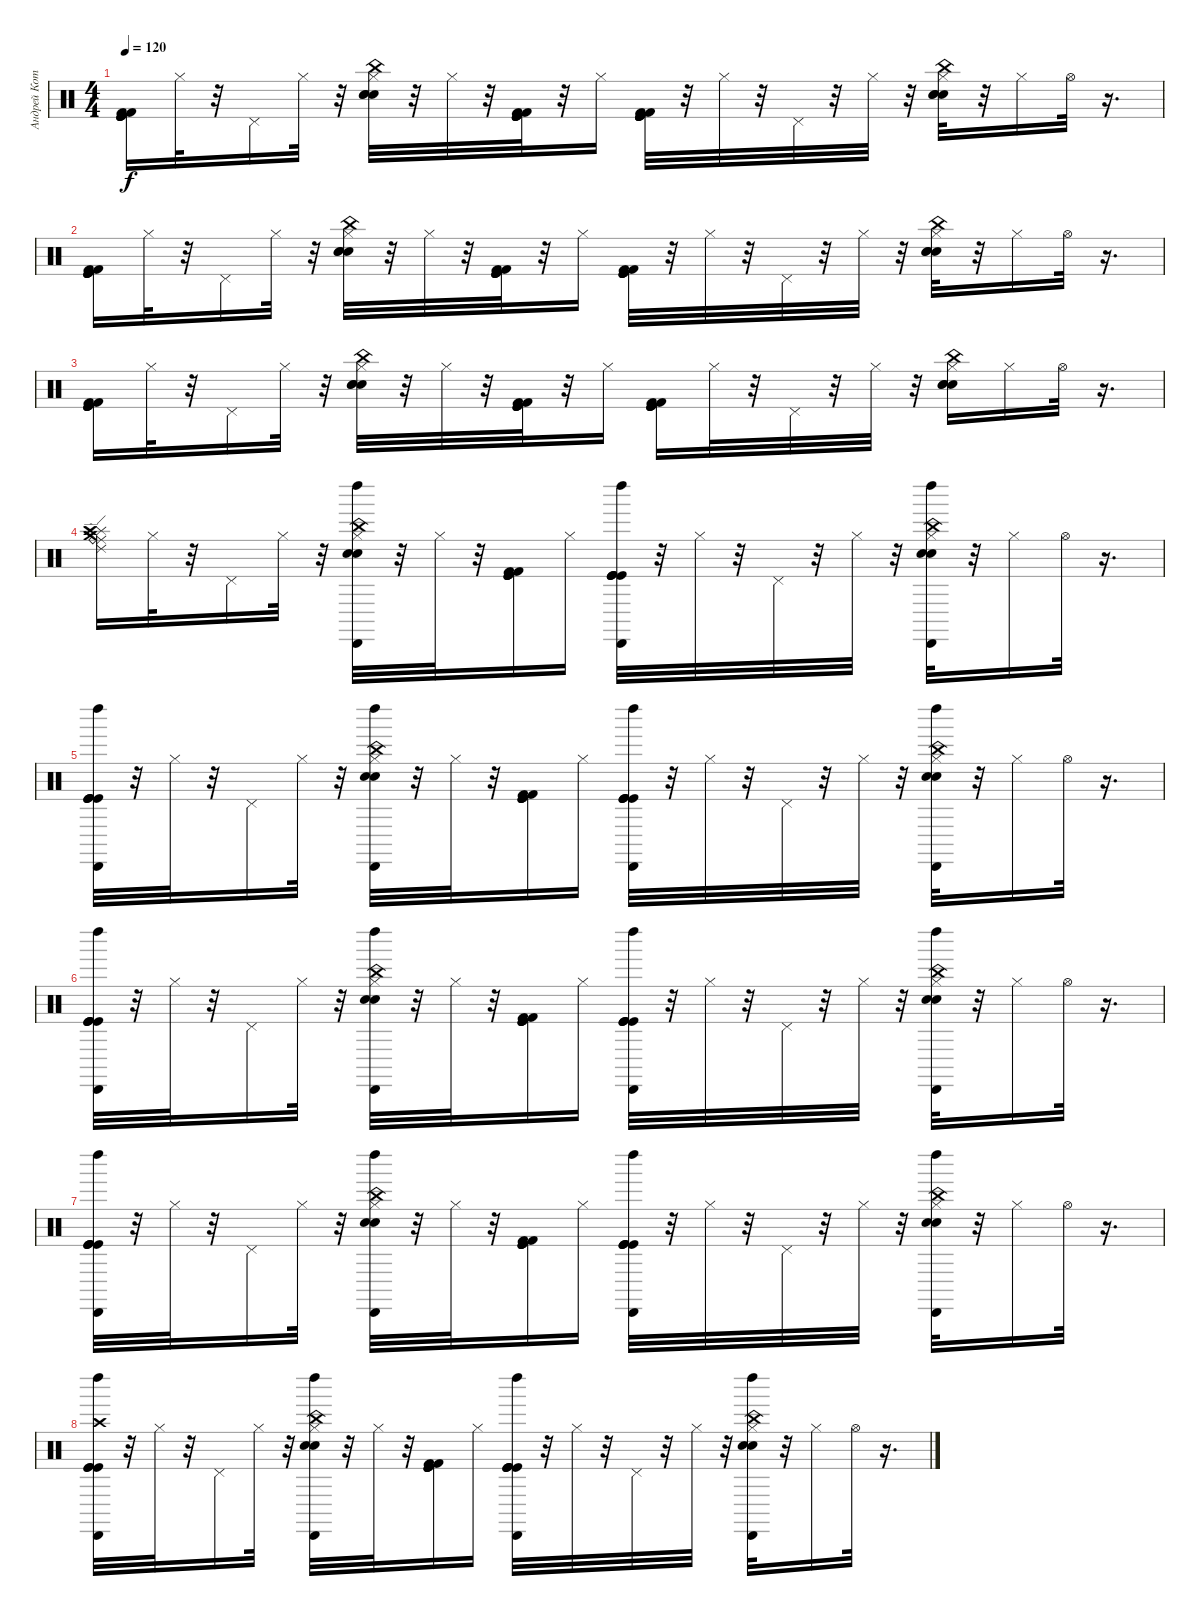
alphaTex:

\track ("Андрей Котов " "Андрей Кот") {instrument percussion}
\staff {score}
\articulation defaults
\ts (4 4)
\tempo 120
\clef neutral
\ks c
("Kick (hit)" "Kick (hit)" "Kick (hit)" "Kick (hit)" "Kick (hit) 2" "Kick (hit) 2").16{dy f} "Hi-Hat (closed)".32 r.32 "Pedal Hi-Hat (hit)".16 "Hi-Hat (closed)".32 r.32 ("China (hit)" "Electric Snare (hit)" "Hand Clap (hit)" "Hi-Hat (closed)" "Snare (hit) 2").32 r.32 "Hi-Hat (closed)".32 r.32 ("Kick (hit)" "Kick (hit)" "Kick (hit)" "Kick (hit)" "Kick (hit) 2" "Kick (hit) 2").32 r.32 "Hi-Hat (closed)".16 ("Kick (hit)" "Kick (hit)" "Kick (hit)" "Kick (hit)" "Kick (hit) 2" "Kick (hit) 2").32 r.32 "Hi-Hat (closed)".32 r.32 "Pedal Hi-Hat (hit)".32 r.32 "Hi-Hat (closed)".32 r.32 ("China (hit)" "Electric Snare (hit)" "Hand Clap (hit)" "Hi-Hat (closed)" "Snare (hit) 2").32 r.32 "Hi-Hat (closed)".16 "Hi-Hat (open)".32 r.16{d} |
("Kick (hit)" "Kick (hit)" "Kick (hit)" "Kick (hit)" "Kick (hit) 2" "Kick (hit) 2").16 "Hi-Hat (closed)".32 r.32 "Pedal Hi-Hat (hit)".16 "Hi-Hat (closed)".32 r.32 ("China (hit)" "Electric Snare (hit)" "Hand Clap (hit)" "Hi-Hat (closed)" "Snare (hit) 2").32 r.32 "Hi-Hat (closed)".32 r.32 ("Kick (hit)" "Kick (hit)" "Kick (hit)" "Kick (hit)" "Kick (hit) 2" "Kick (hit) 2").32 r.32 "Hi-Hat (closed)".16 ("Kick (hit)" "Kick (hit)" "Kick (hit)" "Kick (hit)" "Kick (hit) 2" "Kick (hit) 2").32 r.32 "Hi-Hat (closed)".32 r.32 "Pedal Hi-Hat (hit)".32 r.32 "Hi-Hat (closed)".32 r.32 ("China (hit)" "Electric Snare (hit)" "Hand Clap (hit)" "Hi-Hat (closed)" "Snare (hit) 2").32 r.32 "Hi-Hat (closed)".16 "Hi-Hat (open)".32 r.16{d} |
("Kick (hit)" "Kick (hit)" "Kick (hit)" "Kick (hit)" "Kick (hit) 2" "Kick (hit) 2").16 "Hi-Hat (closed)".32 r.32 "Pedal Hi-Hat (hit)".16 "Hi-Hat (closed)".32 r.32 ("China (hit)" "Electric Snare (hit)" "Hand Clap (hit)" "Hi-Hat (closed)" "Snare (hit) 2").32 r.32 "Hi-Hat (closed)".32 r.32 ("Kick (hit)" "Kick (hit)" "Kick (hit)" "Kick (hit)" "Kick (hit) 2" "Kick (hit) 2").32 r.32 "Hi-Hat (closed)".16 ("Kick (hit)" "Kick (hit)" "Kick (hit)" "Kick (hit)" "Kick (hit) 2" "Kick (hit) 2").16 "Hi-Hat (closed)".32 r.32 "Pedal Hi-Hat (hit)".32 r.32 "Hi-Hat (closed)".32 r.32 ("China (hit)" "Electric Snare (hit)" "Hand Clap (hit)" "Hi-Hat (closed)" "Snare (hit) 2").16 "Hi-Hat (closed)".16 "Hi-Hat (open)".32 r.16{d} |
("Ride (middle)" "Ride (bell)" "Ride (edge) 2" "Splash (hit)" "Crash medium (hit)" "Crash high (hit)").16 "Hi-Hat (closed)".32 r.32 "Pedal Hi-Hat (hit)".16 "Hi-Hat (closed)".32 r.32 ("Cabasa (hit)" "Left Maraca (hit)" "China (hit)" "Electric Snare (hit)" "Hand Clap (hit)" "Hi-Hat (closed)").32 r.32 "Hi-Hat (closed)".32 r.32 ("Kick (hit)" "Kick (hit)" "Kick (hit)" "Kick (hit)" "Kick (hit) 2" "Kick (hit) 2").16 "Hi-Hat (closed)".16 ("Cabasa (hit)" "Left Maraca (hit)" "Kick (hit)" "Kick (hit)" "Kick (hit)" "Kick (hit)").32 r.32 "Hi-Hat (closed)".32 r.32 "Pedal Hi-Hat (hit)".32 r.32 "Hi-Hat (closed)".32 r.32 ("Cabasa (hit)" "Left Maraca (hit)" "China (hit)" "Electric Snare (hit)" "Hand Clap (hit)" "Hi-Hat (closed)").32 r.32 "Hi-Hat (closed)".16 "Hi-Hat (open)".32 r.16{d} |
("Cabasa (hit)" "Left Maraca (hit)" "Kick (hit)" "Kick (hit)" "Kick (hit)" "Kick (hit)").32 r.32 "Hi-Hat (closed)".32 r.32 "Pedal Hi-Hat (hit)".16 "Hi-Hat (closed)".32 r.32 ("Cabasa (hit)" "Left Maraca (hit)" "China (hit)" "Electric Snare (hit)" "Hand Clap (hit)" "Hi-Hat (closed)").32 r.32 "Hi-Hat (closed)".32 r.32 ("Kick (hit)" "Kick (hit)" "Kick (hit)" "Kick (hit)" "Kick (hit) 2" "Kick (hit) 2").16 "Hi-Hat (closed)".16 ("Cabasa (hit)" "Left Maraca (hit)" "Kick (hit)" "Kick (hit)" "Kick (hit)" "Kick (hit)").32 r.32 "Hi-Hat (closed)".32 r.32 "Pedal Hi-Hat (hit)".32 r.32 "Hi-Hat (closed)".32 r.32 ("Cabasa (hit)" "Left Maraca (hit)" "China (hit)" "Electric Snare (hit)" "Hand Clap (hit)" "Hi-Hat (closed)").32 r.32 "Hi-Hat (closed)".16 "Hi-Hat (open)".32 r.16{d} |
("Cabasa (hit)" "Left Maraca (hit)" "Kick (hit)" "Kick (hit)" "Kick (hit)" "Kick (hit)").32 r.32 "Hi-Hat (closed)".32 r.32 "Pedal Hi-Hat (hit)".16 "Hi-Hat (closed)".32 r.32 ("Cabasa (hit)" "Left Maraca (hit)" "China (hit)" "Electric Snare (hit)" "Hand Clap (hit)" "Hi-Hat (closed)").32 r.32 "Hi-Hat (closed)".32 r.32 ("Kick (hit)" "Kick (hit)" "Kick (hit)" "Kick (hit)" "Kick (hit) 2" "Kick (hit) 2").16 "Hi-Hat (closed)".16 ("Cabasa (hit)" "Left Maraca (hit)" "Kick (hit)" "Kick (hit)" "Kick (hit)" "Kick (hit)").32 r.32 "Hi-Hat (closed)".32 r.32 "Pedal Hi-Hat (hit)".32 r.32 "Hi-Hat (closed)".32 r.32 ("Cabasa (hit)" "Left Maraca (hit)" "China (hit)" "Electric Snare (hit)" "Hand Clap (hit)" "Hi-Hat (closed)").32 r.32 "Hi-Hat (closed)".16 "Hi-Hat (open)".32 r.16{d} |
("Cabasa (hit)" "Left Maraca (hit)" "Kick (hit)" "Kick (hit)" "Kick (hit)" "Kick (hit)").32 r.32 "Hi-Hat (closed)".32 r.32 "Pedal Hi-Hat (hit)".16 "Hi-Hat (closed)".32 r.32 ("Cabasa (hit)" "Left Maraca (hit)" "China (hit)" "Electric Snare (hit)" "Hand Clap (hit)" "Hi-Hat (closed)").32 r.32 "Hi-Hat (closed)".32 r.32 ("Kick (hit)" "Kick (hit)" "Kick (hit)" "Kick (hit)" "Kick (hit) 2" "Kick (hit) 2").16 "Hi-Hat (closed)".16 ("Cabasa (hit)" "Left Maraca (hit)" "Kick (hit)" "Kick (hit)" "Kick (hit)" "Kick (hit)").32 r.32 "Hi-Hat (closed)".32 r.32 "Pedal Hi-Hat (hit)".32 r.32 "Hi-Hat (closed)".32 r.32 ("Cabasa (hit)" "Left Maraca (hit)" "China (hit)" "Electric Snare (hit)" "Hand Clap (hit)" "Hi-Hat (closed)").32 r.32 "Hi-Hat (closed)".16 "Hi-Hat (open)".32 r.16{d} |
("Crash high (hit)" "Cabasa (hit)" "Left Maraca (hit)" "Kick (hit)" "Kick (hit)" "Kick (hit)").32 r.32 "Hi-Hat (closed)".32 r.32 "Pedal Hi-Hat (hit)".16 "Hi-Hat (closed)".32 r.32 ("Cabasa (hit)" "Left Maraca (hit)" "China (hit)" "Electric Snare (hit)" "Hand Clap (hit)" "Hi-Hat (closed)").32 r.32 "Hi-Hat (closed)".32 r.32 ("Kick (hit)" "Kick (hit)" "Kick (hit)" "Kick (hit)" "Kick (hit) 2" "Kick (hit) 2").16 "Hi-Hat (closed)".16 ("Cabasa (hit)" "Left Maraca (hit)" "Kick (hit)" "Kick (hit)" "Kick (hit)" "Kick (hit)").32 r.32 "Hi-Hat (closed)".32 r.32 "Pedal Hi-Hat (hit)".32 r.32 "Hi-Hat (closed)".32 r.32 ("Cabasa (hit)" "Left Maraca (hit)" "China (hit)" "Electric Snare (hit)" "Hand Clap (hit)" "Hi-Hat (closed)").32 r.32 "Hi-Hat (closed)".16 "Hi-Hat (open)".32 r.16{d}
